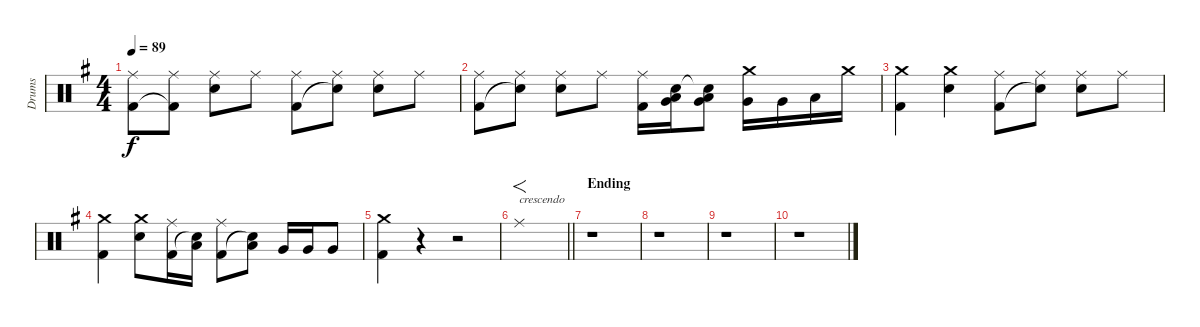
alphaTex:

\track ("Drums" "Drums") {instrument percussion}
\staff {score}
\articulation defaults
\ts (4 4)
\tempo 89
\clef neutral
\ks g
("Ride (middle)" "Kick (hit) 2").8{dy f} ("Ride (middle)" "Kick (hit) 2"{t}).8 ("Ride (middle)" "Electric Snare (hit)").8 "Ride (middle)".8 ("Ride (middle)" "Kick (hit) 2").8 ("Ride (middle)" "Snare (hit)"{t}).8 ("Ride (middle)" "Electric Snare (hit)").8 "Ride (middle)".8 |
("Ride (middle)" "Kick (hit) 2").8 ("Ride (middle)" "Snare (hit)"{t}).8 ("Ride (middle)" "Electric Snare (hit)").8 "Ride (middle)".8 ("Ride (middle)" "Kick (hit) 2").16 ("Low Tom (hit)" "Very Low Tom (hit)" "Snare (hit)").16 ("Low Tom (hit)" "Very Low Tom (hit)" "Snare (hit)"{t}).8 ("Crash medium (hit)" "Very Low Tom (hit)").16 "Very Low Tom (hit)".16 "Low Floor Tom (hit)".16 "Crash medium (hit)".16 |
("Crash medium (hit)" "Kick (hit) 2").4 ("Crash medium (hit)" "Electric Snare (hit)").4 ("Ride (middle)" "Kick (hit) 2").8 ("Ride (middle)" "Snare (hit)"{t}).8 ("Ride (middle)" "Electric Snare (hit)").8 "Ride (middle)".8 |
("Crash medium (hit)" "Kick (hit) 2").4 ("Crash medium (hit)" "Electric Snare (hit)").8 ("Ride (middle)" "Kick (hit) 2").16 ("Low Tom (hit)" "Snare (hit)"{t}).16 ("Ride (middle)" "Kick (hit) 2").8 ("Low Tom (hit)" "Snare (hit)"{t}).8 "Very Low Tom (hit)".16 "Very Low Tom (hit)".16 "Very Low Tom (hit)".8 |
("Crash medium (hit)" "Kick (hit) 2").4 r.4 r.2 |
\barLineRight lightlight "Ride (middle)".1{f txt "crescendo"}
|
\section ("" "Ending")
r.1 |
r.1 |
r.1 |
r.1
